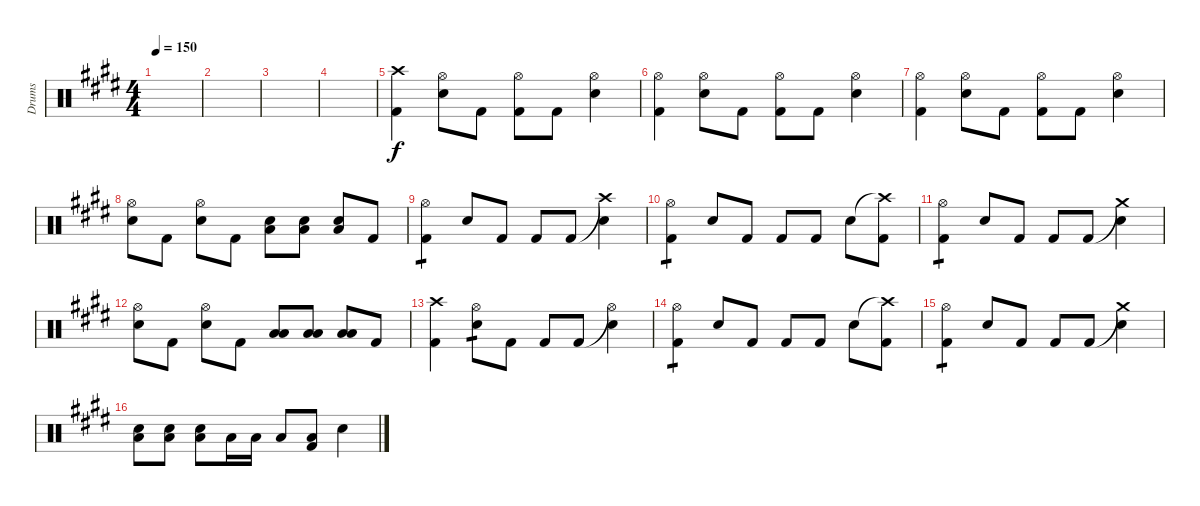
\track ("Drums" "Drums") {instrument percussion}
\staff {score}
\articulation defaults
\ts (4 4)
\tempo 150
\clef neutral
\ks e
|
|
|
|
("Crash high (hit)" "Kick (hit) 2").4 ("Hi-Hat (open)" "Snare (hit) 2").8 "Kick (hit) 2".8 ("Hi-Hat (open)" "Kick (hit) 2").8 "Kick (hit) 2".8 ("Hi-Hat (open)" "Snare (hit) 2").4 |
("Hi-Hat (open)" "Kick (hit) 2").4 ("Hi-Hat (open)" "Snare (hit) 2").8 "Kick (hit) 2".8 ("Hi-Hat (open)" "Kick (hit) 2").8 "Kick (hit) 2".8 ("Hi-Hat (open)" "Snare (hit) 2").4 |
("Hi-Hat (open)" "Kick (hit) 2").4 ("Hi-Hat (open)" "Snare (hit) 2").8 "Kick (hit) 2".8 ("Hi-Hat (open)" "Kick (hit) 2").8 "Kick (hit) 2".8 ("Hi-Hat (open)" "Snare (hit) 2").4 |
("Hi-Hat (open)" "Snare (hit) 2").8 "Kick (hit) 2".8 ("Hi-Hat (open)" "Snare (hit) 2").8 "Kick (hit) 2".8 ("Snare (hit) 2" "Low Floor Tom (hit)").8 ("Snare (hit) 2" "Low Floor Tom (hit)").8 ("Snare (hit) 2" "Low Floor Tom (hit)").8 "Kick (hit) 2".8 |
("Hi-Hat (open)" "Kick (hit) 2").4{tp 1} "Snare (hit) 2".8 "Kick (hit) 2".8 "Kick (hit) 2".8 "Kick (hit) 2".8 ("Crash high (hit)"{t} "Snare (hit) 2").4 |
("Hi-Hat (open)" "Kick (hit) 2").4{tp 1} "Snare (hit) 2".8 "Kick (hit) 2".8 "Kick (hit) 2".8 "Kick (hit) 2".8 "Snare (hit) 2".8 ("Crash high (hit)"{t} "Kick (hit) 2").8 |
("Hi-Hat (open)" "Kick (hit) 2").4{tp 1} "Snare (hit) 2".8 "Kick (hit) 2".8 "Kick (hit) 2".8 "Kick (hit) 2".8 ("Crash medium (hit)"{t} "Snare (hit) 2").4 |
("Hi-Hat (open)" "Snare (hit) 2").8 "Kick (hit) 2".8 ("Hi-Hat (open)" "Snare (hit) 2").8 "Kick (hit) 2".8 ("Low Tom (hit)" "Low Tom (hit)").8 ("Low Tom (hit)" "Low Tom (hit)").8 ("Low Tom (hit)" "Low Tom (hit)").8 "Kick (hit) 2".8 |
("Crash high (hit)" "Kick (hit) 2").4 ("Hi-Hat (open)" "Snare (hit) 2").8{tp 1} "Kick (hit) 2".8 "Kick (hit) 2".8 "Kick (hit) 2".8 ("Hi-Hat (open)"{t} "Snare (hit) 2").4 |
("Hi-Hat (open)" "Kick (hit) 2").4{tp 1} "Snare (hit) 2".8 "Kick (hit) 2".8 "Kick (hit) 2".8 "Kick (hit) 2".8 "Snare (hit) 2".8 ("Crash high (hit)"{t} "Kick (hit) 2").8 |
("Hi-Hat (open)" "Kick (hit) 2").4{tp 1} "Snare (hit) 2".8 "Kick (hit) 2".8 "Kick (hit) 2".8 "Kick (hit) 2".8 ("Crash medium (hit)"{t} "Snare (hit) 2").4 |
("Low Tom (hit)" "Snare (hit) 2").8 ("Low Tom (hit)" "Snare (hit) 2").8 ("Low Tom (hit)" "Snare (hit) 2").8 "Low Floor Tom (hit)".16 "Low Floor Tom (hit)".16 "Low Floor Tom (hit)".8 ("Kick (hit) 2" "Low Floor Tom (hit)").8 "Snare (hit) 2".4
